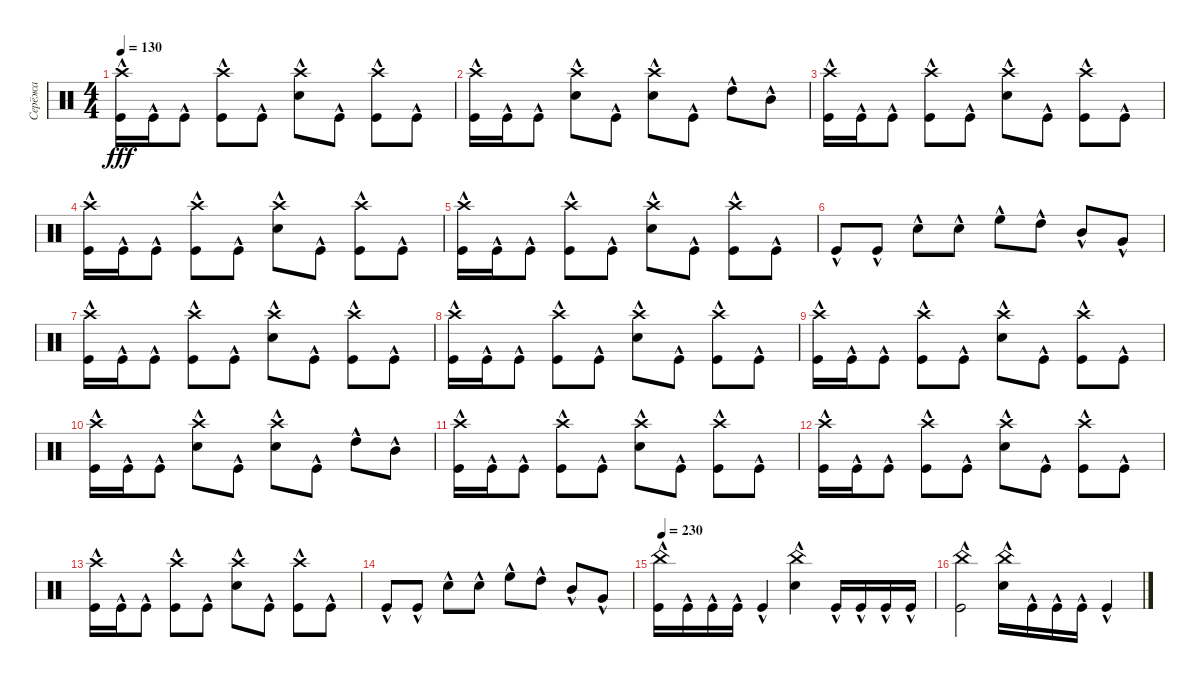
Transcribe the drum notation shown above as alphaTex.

\track ("Серёжа" "Серёжа") {instrument percussion}
\staff {score}
\articulation defaults
\ts (4 4)
\tempo 130
\clef neutral
\ks c
("Crash high (hit)" "Kick (hit)"{hac}).16{dy fff} "Kick (hit)"{hac}.16 "Kick (hit)"{hac}.8 ("Crash high (hit)" "Kick (hit)"{hac}).8 "Kick (hit)"{hac}.8 ("Crash high (hit)" "Snare (hit) 2"{hac}).8 "Kick (hit)"{hac}.8 ("Crash high (hit)" "Kick (hit)"{hac}).8 "Kick (hit)"{hac}.8 |
("Crash high (hit)" "Kick (hit)"{hac}).16 "Kick (hit)"{hac}.16 "Kick (hit)"{hac}.8 ("Crash high (hit)" "Snare (hit) 2"{hac}).8 "Kick (hit)"{hac}.8 ("Crash high (hit)" "Snare (hit) 2"{hac}).8 "Kick (hit)"{hac}.8 "High Tom (hit)"{hac}.8 "Mid Tom (hit)"{hac}.8 |
("Crash high (hit)"{hac} "Kick (hit)"{hac}).16 "Kick (hit)"{hac}.16 "Kick (hit)"{hac}.8 ("Crash high (hit)" "Kick (hit)"{hac}).8 "Kick (hit)"{hac}.8 ("Crash high (hit)" "Snare (hit) 2"{hac}).8 "Kick (hit)"{hac}.8 ("Crash high (hit)" "Kick (hit)"{hac}).8 "Kick (hit)"{hac}.8 |
("Crash high (hit)" "Kick (hit)"{hac}).16 "Kick (hit)"{hac}.16 "Kick (hit)"{hac}.8 ("Crash high (hit)" "Kick (hit)"{hac}).8 "Kick (hit)"{hac}.8 ("Crash high (hit)" "Snare (hit) 2"{hac}).8 "Kick (hit)"{hac}.8 ("Crash high (hit)" "Kick (hit)"{hac}).8 "Kick (hit)"{hac}.8 |
("Crash high (hit)" "Kick (hit)"{hac}).16 "Kick (hit)"{hac}.16 "Kick (hit)"{hac}.8 ("Crash high (hit)" "Kick (hit)"{hac}).8 "Kick (hit)"{hac}.8 ("Crash high (hit)" "Snare (hit) 2"{hac}).8 "Kick (hit)"{hac}.8 ("Crash high (hit)" "Kick (hit)"{hac}).8 "Kick (hit)"{hac}.8 |
"Kick (hit)"{hac}.8 "Kick (hit)"{hac}.8 "Snare (hit) 2"{hac}.8 "Snare (hit) 2"{hac}.8 "High Floor Tom (hit)"{hac}.8 "High Tom (hit)"{hac}.8 "Mid Tom (hit)"{hac}.8 "Very Low Tom (hit)"{hac}.8 |
("Crash high (hit)"{hac} "Kick (hit)"{hac}).16 "Kick (hit)"{hac}.16 "Kick (hit)"{hac}.8 ("Crash high (hit)" "Kick (hit)"{hac}).8 "Kick (hit)"{hac}.8 ("Crash high (hit)" "Snare (hit) 2"{hac}).8 "Kick (hit)"{hac}.8 ("Crash high (hit)" "Kick (hit)"{hac}).8 "Kick (hit)"{hac}.8 |
("Crash high (hit)" "Kick (hit)"{hac}).16 "Kick (hit)"{hac}.16 "Kick (hit)"{hac}.8 ("Crash high (hit)" "Kick (hit)"{hac}).8 "Kick (hit)"{hac}.8 ("Crash high (hit)" "Snare (hit) 2"{hac}).8 "Kick (hit)"{hac}.8 ("Crash high (hit)" "Kick (hit)"{hac}).8 "Kick (hit)"{hac}.8 |
("Crash high (hit)" "Kick (hit)"{hac}).16 "Kick (hit)"{hac}.16 "Kick (hit)"{hac}.8 ("Crash high (hit)" "Kick (hit)"{hac}).8 "Kick (hit)"{hac}.8 ("Crash high (hit)" "Snare (hit) 2"{hac}).8 "Kick (hit)"{hac}.8 ("Crash high (hit)" "Kick (hit)"{hac}).8 "Kick (hit)"{hac}.8 |
("Crash high (hit)" "Kick (hit)"{hac}).16 "Kick (hit)"{hac}.16 "Kick (hit)"{hac}.8 ("Crash high (hit)" "Snare (hit) 2"{hac}).8 "Kick (hit)"{hac}.8 ("Crash high (hit)" "Snare (hit) 2"{hac}).8 "Kick (hit)"{hac}.8 "High Tom (hit)"{hac}.8 "Mid Tom (hit)"{hac}.8 |
("Crash high (hit)"{hac} "Kick (hit)"{hac}).16 "Kick (hit)"{hac}.16 "Kick (hit)"{hac}.8 ("Crash high (hit)" "Kick (hit)"{hac}).8 "Kick (hit)"{hac}.8 ("Crash high (hit)" "Snare (hit) 2"{hac}).8 "Kick (hit)"{hac}.8 ("Crash high (hit)" "Kick (hit)"{hac}).8 "Kick (hit)"{hac}.8 |
("Crash high (hit)" "Kick (hit)"{hac}).16 "Kick (hit)"{hac}.16 "Kick (hit)"{hac}.8 ("Crash high (hit)" "Kick (hit)"{hac}).8 "Kick (hit)"{hac}.8 ("Crash high (hit)" "Snare (hit) 2"{hac}).8 "Kick (hit)"{hac}.8 ("Crash high (hit)" "Kick (hit)"{hac}).8 "Kick (hit)"{hac}.8 |
("Crash high (hit)" "Kick (hit)"{hac}).16 "Kick (hit)"{hac}.16 "Kick (hit)"{hac}.8 ("Crash high (hit)" "Kick (hit)"{hac}).8 "Kick (hit)"{hac}.8 ("Crash high (hit)" "Snare (hit) 2"{hac}).8 "Kick (hit)"{hac}.8 ("Crash high (hit)" "Kick (hit)"{hac}).8 "Kick (hit)"{hac}.8 |
"Kick (hit)"{hac}.8 "Kick (hit)"{hac}.8 "Snare (hit) 2"{hac}.8 "Snare (hit) 2"{hac}.8 "High Floor Tom (hit)"{hac}.8 "High Tom (hit)"{hac}.8 "Mid Tom (hit)"{hac}.8 "Very Low Tom (hit)"{hac}.8 |
\tempo 230
("China (hit)" "Kick (hit)"{hac}).16 "Kick (hit)"{hac}.16 "Kick (hit)"{hac}.16 "Kick (hit)"{hac}.16 "Kick (hit)"{hac}.4 ("China (hit)" "Snare (hit) 2"{hac}).4 "Kick (hit)"{hac}.16 "Kick (hit)"{hac}.16 "Kick (hit)"{hac}.16 "Kick (hit)"{hac}.16 |
("China (hit)" "Kick (hit)"{hac}).2 ("China (hit)" "Snare (hit) 2"{hac}).16 "Kick (hit)"{hac}.16 "Kick (hit)"{hac}.16 "Kick (hit)"{hac}.16 "Kick (hit)"{hac}.4
